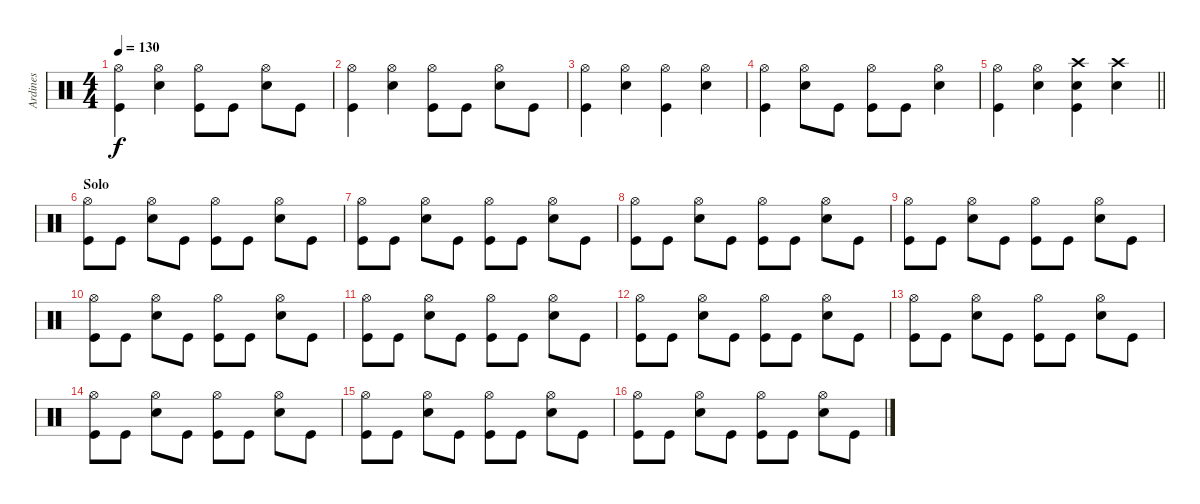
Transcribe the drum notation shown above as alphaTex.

\track ("Ardines" "Ardines") {instrument percussion}
\staff {score}
\articulation defaults
\ts (4 4)
\tempo 130
\clef neutral
\ks c
("Hi-Hat (open)" "Kick (hit)").4{dy f} ("Hi-Hat (open)" "Electric Snare (hit)").4 ("Hi-Hat (open)" "Kick (hit)").8 "Kick (hit)".8 ("Hi-Hat (open)" "Electric Snare (hit)").8 "Kick (hit)".8 |
("Hi-Hat (open)" "Kick (hit)").4 ("Hi-Hat (open)" "Electric Snare (hit)").4 ("Hi-Hat (open)" "Kick (hit)").8 "Kick (hit)".8 ("Hi-Hat (open)" "Electric Snare (hit)").8 "Kick (hit)".8 |
("Hi-Hat (open)" "Kick (hit)").4 ("Hi-Hat (open)" "Electric Snare (hit)").4 ("Hi-Hat (open)" "Kick (hit)").4 ("Hi-Hat (open)" "Electric Snare (hit)").4 |
("Hi-Hat (open)" "Kick (hit)").4 ("Hi-Hat (open)" "Electric Snare (hit)").8 "Kick (hit)".8 ("Hi-Hat (open)" "Kick (hit)").8 "Kick (hit)".8 ("Hi-Hat (open)" "Electric Snare (hit)").4 |
\barLineRight lightlight
("Hi-Hat (open)" "Kick (hit)").4 ("Hi-Hat (open)" "Electric Snare (hit)").4 ("Crash high (hit)" "Electric Snare (hit)" "Kick (hit)").4 ("Crash high (hit)" "Electric Snare (hit)").4 |
\section ("" "Solo")
("Hi-Hat (open)" "Kick (hit)").8 "Kick (hit)".8 ("Hi-Hat (open)" "Electric Snare (hit)").8 "Kick (hit)".8 ("Hi-Hat (open)" "Kick (hit)").8 "Kick (hit)".8 ("Hi-Hat (open)" "Electric Snare (hit)").8 "Kick (hit)".8 |
("Hi-Hat (open)" "Kick (hit)").8 "Kick (hit)".8 ("Hi-Hat (open)" "Electric Snare (hit)").8 "Kick (hit)".8 ("Hi-Hat (open)" "Kick (hit)").8 "Kick (hit)".8 ("Hi-Hat (open)" "Electric Snare (hit)").8 "Kick (hit)".8 |
("Hi-Hat (open)" "Kick (hit)").8 "Kick (hit)".8 ("Hi-Hat (open)" "Electric Snare (hit)").8 "Kick (hit)".8 ("Hi-Hat (open)" "Kick (hit)").8 "Kick (hit)".8 ("Hi-Hat (open)" "Electric Snare (hit)").8 "Kick (hit)".8 |
("Hi-Hat (open)" "Kick (hit)").8 "Kick (hit)".8 ("Hi-Hat (open)" "Electric Snare (hit)").8 "Kick (hit)".8 ("Hi-Hat (open)" "Kick (hit)").8 "Kick (hit)".8 ("Hi-Hat (open)" "Electric Snare (hit)").8 "Kick (hit)".8 |
("Hi-Hat (open)" "Kick (hit)").8 "Kick (hit)".8 ("Hi-Hat (open)" "Electric Snare (hit)").8 "Kick (hit)".8 ("Hi-Hat (open)" "Kick (hit)").8 "Kick (hit)".8 ("Hi-Hat (open)" "Electric Snare (hit)").8 "Kick (hit)".8 |
("Hi-Hat (open)" "Kick (hit)").8 "Kick (hit)".8 ("Hi-Hat (open)" "Electric Snare (hit)").8 "Kick (hit)".8 ("Hi-Hat (open)" "Kick (hit)").8 "Kick (hit)".8 ("Hi-Hat (open)" "Electric Snare (hit)").8 "Kick (hit)".8 |
("Hi-Hat (open)" "Kick (hit)").8 "Kick (hit)".8 ("Hi-Hat (open)" "Electric Snare (hit)").8 "Kick (hit)".8 ("Hi-Hat (open)" "Kick (hit)").8 "Kick (hit)".8 ("Hi-Hat (open)" "Electric Snare (hit)").8 "Kick (hit)".8 |
("Hi-Hat (open)" "Kick (hit)").8 "Kick (hit)".8 ("Hi-Hat (open)" "Electric Snare (hit)").8 "Kick (hit)".8 ("Hi-Hat (open)" "Kick (hit)").8 "Kick (hit)".8 ("Hi-Hat (open)" "Electric Snare (hit)").8 "Kick (hit)".8 |
("Hi-Hat (open)" "Kick (hit)").8 "Kick (hit)".8 ("Hi-Hat (open)" "Electric Snare (hit)").8 "Kick (hit)".8 ("Hi-Hat (open)" "Kick (hit)").8 "Kick (hit)".8 ("Hi-Hat (open)" "Electric Snare (hit)").8 "Kick (hit)".8 |
("Hi-Hat (open)" "Kick (hit)").8 "Kick (hit)".8 ("Hi-Hat (open)" "Electric Snare (hit)").8 "Kick (hit)".8 ("Hi-Hat (open)" "Kick (hit)").8 "Kick (hit)".8 ("Hi-Hat (open)" "Electric Snare (hit)").8 "Kick (hit)".8 |
("Hi-Hat (open)" "Kick (hit)").8 "Kick (hit)".8 ("Hi-Hat (open)" "Electric Snare (hit)").8 "Kick (hit)".8 ("Hi-Hat (open)" "Kick (hit)").8 "Kick (hit)".8 ("Hi-Hat (open)" "Electric Snare (hit)").8 "Kick (hit)".8
